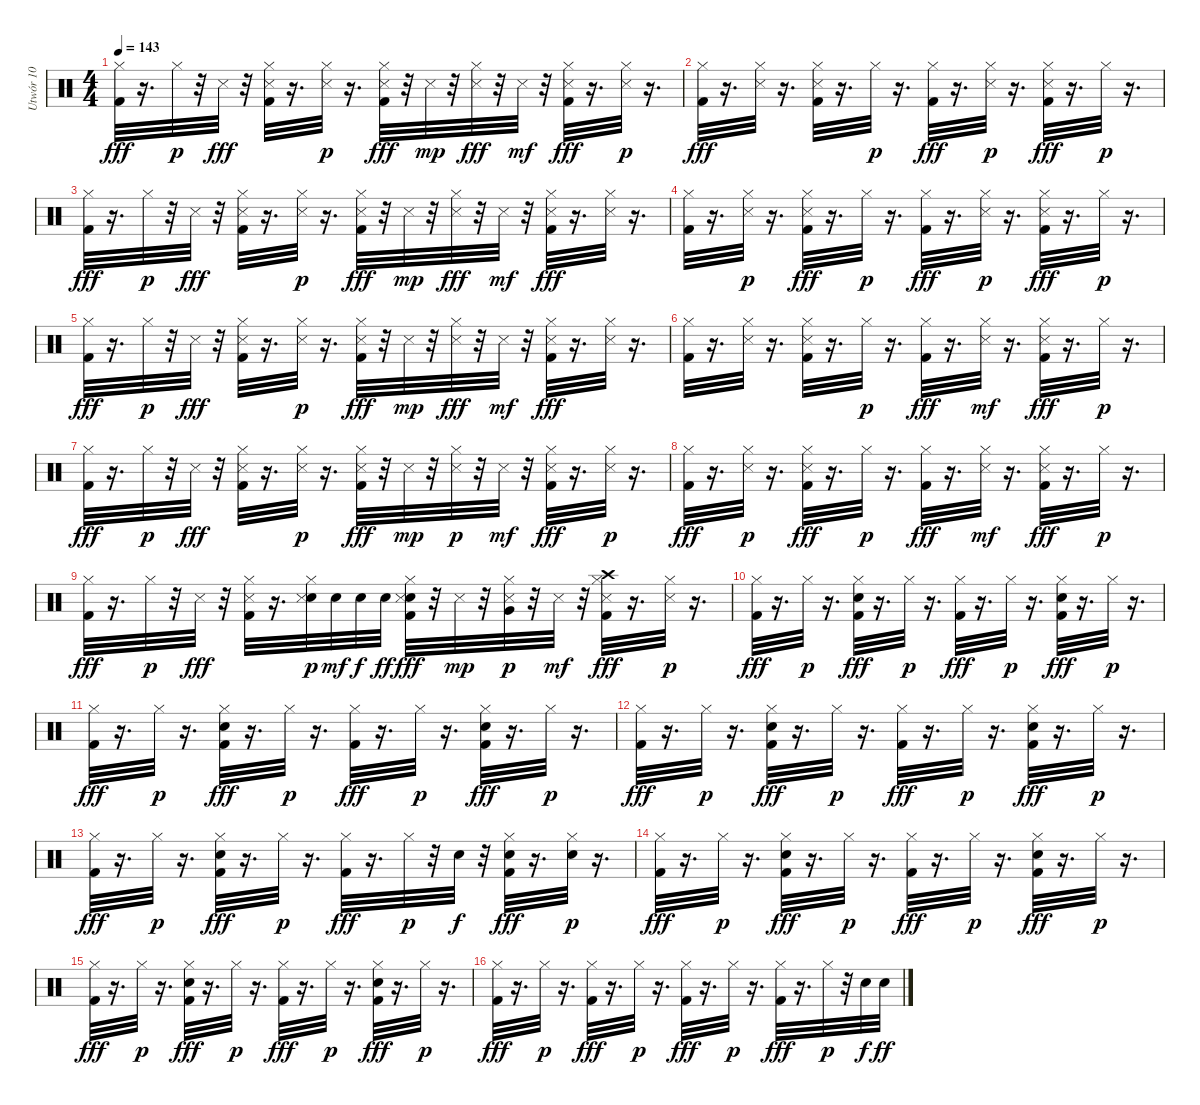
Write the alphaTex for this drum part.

\track ("Utwór 10" "Utwór 10") {instrument percussion}
\staff {score}
\articulation defaults
\ts (4 4)
\tempo 143
\clef neutral
\ks c
("Hi-Hat (closed)" "Kick (hit) 2").32{dy fff} r.16{d} "Hi-Hat (closed)".32{dy p} r.32 "Snare (side stick) 3".32{dy fff} r.32 ("Hi-Hat (closed)" "Snare (side stick) 3" "Kick (hit) 2").32 r.16{d} ("Snare (side stick) 3" "Hi-Hat (closed)").32{dy p} r.16{d} ("Hi-Hat (closed)" "Kick (hit) 2" "Snare (side stick) 3").32{dy fff} r.32 "Snare (side stick) 3".32{dy mp} r.32 ("Hi-Hat (closed)" "Snare (side stick) 3").32{dy fff} r.32 "Snare (side stick) 3".32{dy mf} r.32 ("Hi-Hat (closed)" "Kick (hit) 2" "Snare (side stick) 3").32{dy fff} r.16{d} ("Snare (side stick) 3" "Hi-Hat (closed)").32{dy p} r.16{d} |
("Hi-Hat (closed)" "Kick (hit) 2").32{dy fff} r.16{d} ("Hi-Hat (closed)" "Snare (side stick) 3").32 r.16{d} ("Kick (hit) 2" "Hi-Hat (closed)" "Snare (side stick) 3").32 r.16{d} "Hi-Hat (closed)".32{dy p} r.16{d} ("Kick (hit) 2" "Hi-Hat (closed)").32{dy fff} r.16{d} ("Snare (side stick) 3" "Hi-Hat (closed)").32{dy p} r.16{d} ("Hi-Hat (closed)" "Kick (hit) 2" "Snare (side stick) 3").32{dy fff} r.16{d} "Hi-Hat (closed)".32{dy p} r.16{d} |
("Kick (hit) 2" "Hi-Hat (closed)").32{dy fff} r.16{d} "Hi-Hat (closed)".32{dy p} r.32 "Snare (side stick) 3".32{dy fff} r.32 ("Snare (side stick) 3" "Kick (hit) 2" "Hi-Hat (closed)").32 r.16{d} ("Snare (side stick) 3" "Hi-Hat (closed)").32{dy p} r.16{d} ("Hi-Hat (closed)" "Kick (hit) 2" "Snare (side stick) 3").32{dy fff} r.32 "Snare (side stick) 3".32{dy mp} r.32 ("Hi-Hat (closed)" "Snare (side stick) 3").32{dy fff} r.32 "Snare (side stick) 3".32{dy mf} r.32 ("Kick (hit) 2" "Hi-Hat (closed)" "Snare (side stick) 3").32{dy fff} r.16{d} ("Hi-Hat (closed)" "Snare (side stick) 3").32 r.16{d} |
("Hi-Hat (closed)" "Kick (hit) 2").32 r.16{d} ("Snare (side stick) 3" "Hi-Hat (closed)").32{dy p} r.16{d} ("Hi-Hat (closed)" "Kick (hit) 2" "Snare (side stick) 3").32{dy fff} r.16{d} "Hi-Hat (closed)".32{dy p} r.16{d} ("Kick (hit) 2" "Hi-Hat (closed)").32{dy fff} r.16{d} ("Snare (side stick) 3" "Hi-Hat (closed)").32{dy p} r.16{d} ("Hi-Hat (closed)" "Snare (side stick) 3" "Kick (hit) 2").32{dy fff} r.16{d} "Hi-Hat (closed)".32{dy p} r.16{d} |
("Hi-Hat (closed)" "Kick (hit) 2").32{dy fff} r.16{d} "Hi-Hat (closed)".32{dy p} r.32 "Snare (side stick) 3".32{dy fff} r.32 ("Kick (hit) 2" "Snare (side stick) 3" "Hi-Hat (closed)").32 r.16{d} ("Snare (side stick) 3" "Hi-Hat (closed)").32{dy p} r.16{d} ("Kick (hit) 2" "Snare (side stick) 3" "Hi-Hat (closed)").32{dy fff} r.32 "Snare (side stick) 3".32{dy mp} r.32 ("Hi-Hat (closed)" "Snare (side stick) 3").32{dy fff} r.32 "Snare (side stick) 3".32{dy mf} r.32 ("Kick (hit) 2" "Hi-Hat (closed)" "Snare (side stick) 3").32{dy fff} r.16{d} ("Hi-Hat (closed)" "Snare (side stick) 3").32 r.16{d} |
("Hi-Hat (closed)" "Kick (hit) 2").32 r.16{d} ("Hi-Hat (closed)" "Snare (side stick) 3").32 r.16{d} ("Kick (hit) 2" "Snare (side stick) 3" "Hi-Hat (closed)").32 r.16{d} "Hi-Hat (closed)".32{dy p} r.16{d} ("Hi-Hat (closed)" "Kick (hit) 2").32{dy fff} r.16{d} ("Hi-Hat (closed)" "Snare (side stick) 3").32{dy mf} r.16{d} ("Kick (hit) 2" "Hi-Hat (closed)" "Snare (side stick) 3").32{dy fff} r.16{d} "Hi-Hat (closed)".32{dy p} r.16{d} |
("Hi-Hat (closed)" "Kick (hit) 2").32{dy fff} r.16{d} "Hi-Hat (closed)".32{dy p} r.32 "Snare (side stick) 3".32{dy fff} r.32 ("Kick (hit) 2" "Hi-Hat (closed)" "Snare (side stick) 3").32 r.16{d} ("Snare (side stick) 3" "Hi-Hat (closed)").32{dy p} r.16{d} ("Hi-Hat (closed)" "Snare (side stick) 3" "Kick (hit) 2").32{dy fff} r.32 "Snare (side stick) 3".32{dy mp} r.32 ("Snare (side stick) 3" "Hi-Hat (closed)").32{dy p} r.32 "Snare (side stick) 3".32{dy mf} r.32 ("Kick (hit) 2" "Hi-Hat (closed)" "Snare (side stick) 3").32{dy fff} r.16{d} ("Snare (side stick) 3" "Hi-Hat (closed)").32{dy p} r.16{d} |
("Hi-Hat (closed)" "Kick (hit) 2").32{dy fff} r.16{d} ("Snare (side stick) 3" "Hi-Hat (closed)").32{dy p} r.16{d} ("Snare (side stick) 3" "Kick (hit) 2" "Hi-Hat (closed)").32{dy fff} r.16{d} "Hi-Hat (closed)".32{dy p} r.16{d} ("Hi-Hat (closed)" "Kick (hit) 2").32{dy fff} r.16{d} ("Hi-Hat (closed)" "Snare (side stick) 3").32{dy mf} r.16{d} ("Snare (side stick) 3" "Kick (hit) 2" "Hi-Hat (closed)").32{dy fff} r.16{d} "Hi-Hat (closed)".32{dy p} r.16{d} |
("Hi-Hat (closed)" "Kick (hit) 2").32{dy fff} r.16{d} "Hi-Hat (closed)".32{dy p} r.32 "Snare (side stick) 3".32{dy fff} r.32 ("Kick (hit) 2" "Hi-Hat (closed)" "Snare (side stick) 3").32 r.16{d} ("Electric Snare (hit)" "Snare (side stick) 3" "Hi-Hat (closed)").32{dy p} "Electric Snare (hit)".32{dy mf} "Electric Snare (hit)".32{dy f} "Electric Snare (hit)".32{dy ff} ("Electric Snare (hit)" "Kick (hit) 2" "Hi-Hat (closed)" "Snare (side stick) 3").32{dy fff} r.32 "Snare (side stick) 3".32{dy mp} r.32 ("Very Low Tom (hit)" "Snare (side stick) 3" "Hi-Hat (closed)").32{dy p} r.32 "Snare (side stick) 3".32{dy mf} r.32 ("Kick (hit) 2" "Hi-Hat (closed)" "Crash high (hit)" "Snare (side stick) 3").32{dy fff} r.16{d} ("Snare (side stick) 3" "Hi-Hat (closed)").32{dy p} r.16{d} |
("Kick (hit) 2" "Hi-Hat (closed)").32{dy fff} r.16{d} "Hi-Hat (closed)".32{dy p} r.16{d} ("Hi-Hat (closed)" "Kick (hit) 2" "Electric Snare (hit)").32{dy fff} r.16{d} "Hi-Hat (closed)".32{dy p} r.16{d} ("Kick (hit) 2" "Hi-Hat (closed)").32{dy fff} r.16{d} "Hi-Hat (closed)".32{dy p} r.16{d} ("Electric Snare (hit)" "Kick (hit) 2" "Hi-Hat (closed)").32{dy fff} r.16{d} "Hi-Hat (closed)".32{dy p} r.16{d} |
("Kick (hit) 2" "Hi-Hat (closed)").32{dy fff} r.16{d} "Hi-Hat (closed)".32{dy p} r.16{d} ("Kick (hit) 2" "Hi-Hat (closed)" "Electric Snare (hit)").32{dy fff} r.16{d} "Hi-Hat (closed)".32{dy p} r.16{d} ("Kick (hit) 2" "Hi-Hat (closed)").32{dy fff} r.16{d} "Hi-Hat (closed)".32{dy p} r.16{d} ("Electric Snare (hit)" "Kick (hit) 2" "Hi-Hat (closed)").32{dy fff} r.16{d} "Hi-Hat (closed)".32{dy p} r.16{d} |
("Hi-Hat (closed)" "Kick (hit) 2").32{dy fff} r.16{d} "Hi-Hat (closed)".32{dy p} r.16{d} ("Hi-Hat (closed)" "Kick (hit) 2" "Electric Snare (hit)").32{dy fff} r.16{d} "Hi-Hat (closed)".32{dy p} r.16{d} ("Hi-Hat (closed)" "Kick (hit) 2").32{dy fff} r.16{d} "Hi-Hat (closed)".32{dy p} r.16{d} ("Kick (hit) 2" "Hi-Hat (closed)" "Electric Snare (hit)").32{dy fff} r.16{d} "Hi-Hat (closed)".32{dy p} r.16{d} |
("Kick (hit) 2" "Hi-Hat (closed)").32{dy fff} r.16{d} "Hi-Hat (closed)".32{dy p} r.16{d} ("Kick (hit) 2" "Electric Snare (hit)" "Hi-Hat (closed)").32{dy fff} r.16{d} "Hi-Hat (closed)".32{dy p} r.16{d} ("Kick (hit) 2" "Hi-Hat (closed)").32{dy fff} r.16{d} "Hi-Hat (closed)".32{dy p} r.32 "Electric Snare (hit)".32{dy f} r.32 ("Hi-Hat (closed)" "Kick (hit) 2" "Electric Snare (hit)").32{dy fff} r.16{d} ("Hi-Hat (closed)" "Electric Snare (hit)").32{dy p} r.16{d} |
("Hi-Hat (closed)" "Kick (hit) 2").32{dy fff} r.16{d} "Hi-Hat (closed)".32{dy p} r.16{d} ("Electric Snare (hit)" "Kick (hit) 2" "Hi-Hat (closed)").32{dy fff} r.16{d} "Hi-Hat (closed)".32{dy p} r.16{d} ("Hi-Hat (closed)" "Kick (hit) 2").32{dy fff} r.16{d} "Hi-Hat (closed)".32{dy p} r.16{d} ("Kick (hit) 2" "Electric Snare (hit)" "Hi-Hat (closed)").32{dy fff} r.16{d} "Hi-Hat (closed)".32{dy p} r.16{d} |
("Kick (hit) 2" "Hi-Hat (closed)").32{dy fff} r.16{d} "Hi-Hat (closed)".32{dy p} r.16{d} ("Electric Snare (hit)" "Kick (hit) 2" "Hi-Hat (closed)").32{dy fff} r.16{d} "Hi-Hat (closed)".32{dy p} r.16{d} ("Kick (hit) 2" "Hi-Hat (closed)").32{dy fff} r.16{d} "Hi-Hat (closed)".32{dy p} r.16{d} ("Hi-Hat (closed)" "Electric Snare (hit)" "Kick (hit) 2").32{dy fff} r.16{d} "Hi-Hat (closed)".32{dy p} r.16{d} |
("Kick (hit) 2" "Hi-Hat (closed)").32{dy fff} r.16{d} "Hi-Hat (closed)".32{dy p} r.16{d} ("Kick (hit) 2" "Hi-Hat (closed)").32{dy fff} r.16{d} "Hi-Hat (closed)".32{dy p} r.16{d} ("Hi-Hat (closed)" "Kick (hit) 2").32{dy fff} r.16{d} "Hi-Hat (closed)".32{dy p} r.16{d} ("Kick (hit) 2" "Hi-Hat (closed)").32{dy fff} r.16{d} "Hi-Hat (closed)".32{dy p} r.32 "Electric Snare (hit)".32{dy f} "Electric Snare (hit)".32{dy ff}
